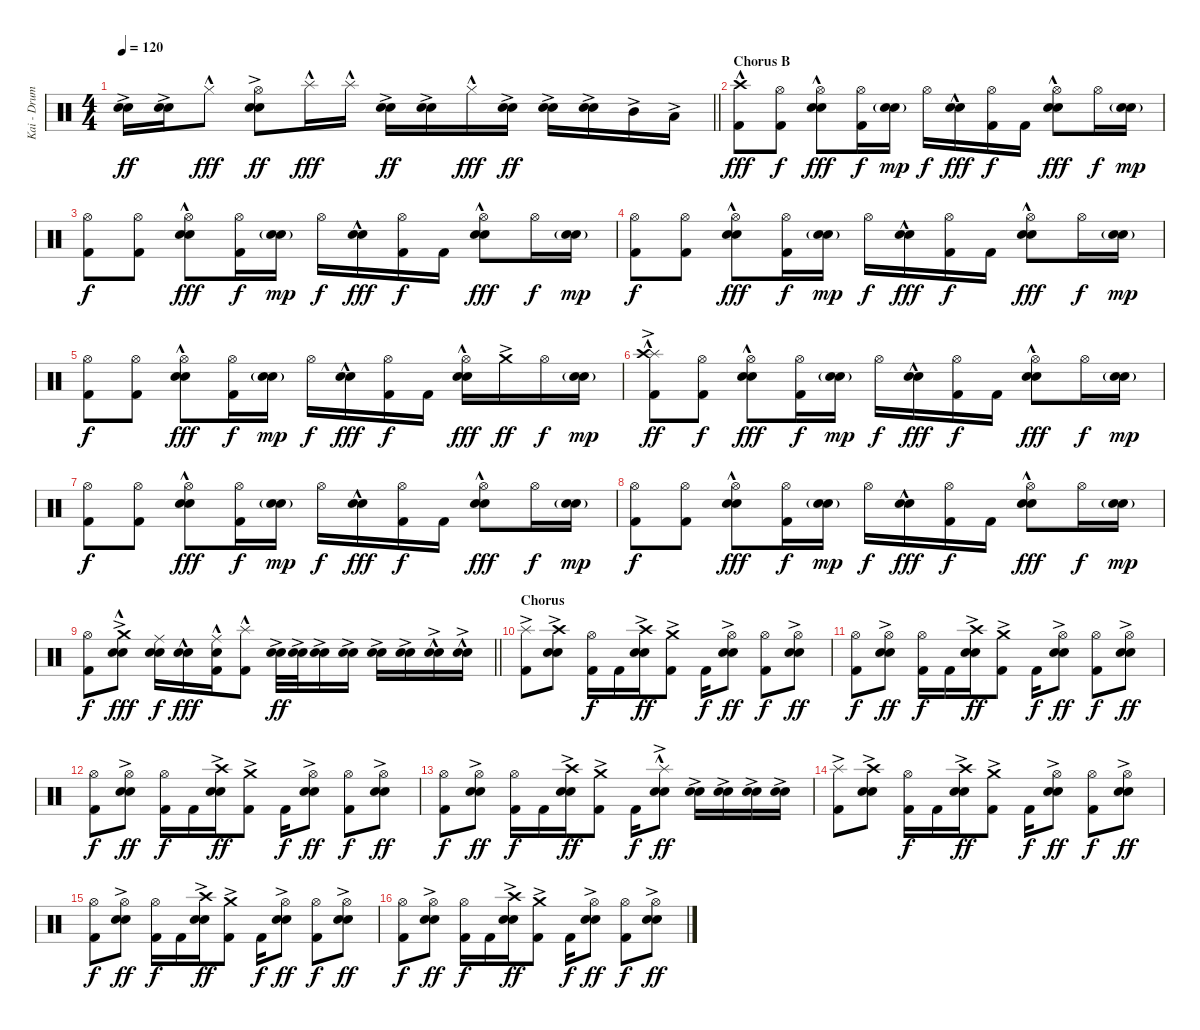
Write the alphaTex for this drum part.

\track ("Kai - Drums" "Kai - Drum") {instrument percussion}
\staff {score}
\articulation defaults
\ts (4 4)
\tempo 120
\clef neutral
\barLineRight lightlight
\ks c
("Electric Snare (hit)"{ac} "Snare (hit) 2").16{dy ff} ("Electric Snare (hit)"{ac} "Snare (hit) 2").16 "Hi-Hat (closed)"{hac}.8{dy fff} ("Hi-Hat (open)" "Electric Snare (hit)"{ac} "Snare (hit) 2").8{dy ff} "Splash (hit)"{hac}.16{dy fff} "Splash (hit)"{hac}.16 ("Electric Snare (hit)"{ac} "Snare (hit) 2").16{dy ff} ("Electric Snare (hit)"{ac} "Snare (hit) 2").16 "Hi-Hat (closed)"{hac}.16{dy fff} ("Electric Snare (hit)"{ac} "Snare (hit) 2").16{dy ff} ("Electric Snare (hit)"{ac} "Snare (hit) 2").16 ("Electric Snare (hit)"{ac} "Snare (hit) 2").16 "Mid Tom (hit)"{ac}.16 "Low Tom (hit)"{ac}.16 |
\section ("" "Chorus B")
("Crash high (hit)"{hac} "Kick (hit) 2").8{dy fff} ("Hi-Hat (open)" "Kick (hit) 2").8{dy f} ("Hi-Hat (open)" "Electric Snare (hit)"{hac} "Snare (hit) 2").8{dy fff} ("Hi-Hat (open)" "Kick (hit) 2").16{dy f} ("Electric Snare (hit)"{g} "Snare (hit) 2"{g}).16{dy mp} "Hi-Hat (open)".16{dy f} ("Electric Snare (hit)"{hac} "Snare (hit) 2").16{dy fff} ("Hi-Hat (open)" "Kick (hit) 2").16{dy f} "Kick (hit) 2".16 ("Hi-Hat (open)" "Electric Snare (hit)"{hac} "Snare (hit) 2").8{dy fff} "Hi-Hat (open)".16{dy f} ("Electric Snare (hit)"{g} "Snare (hit) 2"{g}).16{dy mp} |
("Hi-Hat (open)" "Kick (hit) 2").8{dy f} ("Hi-Hat (open)" "Kick (hit) 2").8 ("Hi-Hat (open)" "Electric Snare (hit)"{hac} "Snare (hit) 2").8{dy fff} ("Hi-Hat (open)" "Kick (hit) 2").16{dy f} ("Electric Snare (hit)"{g} "Snare (hit) 2"{g}).16{dy mp} "Hi-Hat (open)".16{dy f} ("Electric Snare (hit)"{hac} "Snare (hit) 2").16{dy fff} ("Hi-Hat (open)" "Kick (hit) 2").16{dy f} "Kick (hit) 2".16 ("Hi-Hat (open)" "Electric Snare (hit)"{hac} "Snare (hit) 2").8{dy fff} "Hi-Hat (open)".16{dy f} ("Electric Snare (hit)"{g} "Snare (hit) 2"{g}).16{dy mp} |
("Hi-Hat (open)" "Kick (hit) 2").8{dy f} ("Hi-Hat (open)" "Kick (hit) 2").8 ("Hi-Hat (open)" "Electric Snare (hit)"{hac} "Snare (hit) 2").8{dy fff} ("Hi-Hat (open)" "Kick (hit) 2").16{dy f} ("Electric Snare (hit)"{g} "Snare (hit) 2"{g}).16{dy mp} "Hi-Hat (open)".16{dy f} ("Electric Snare (hit)"{hac} "Snare (hit) 2").16{dy fff} ("Hi-Hat (open)" "Kick (hit) 2").16{dy f} "Kick (hit) 2".16 ("Hi-Hat (open)" "Electric Snare (hit)"{hac} "Snare (hit) 2").8{dy fff} "Hi-Hat (open)".16{dy f} ("Electric Snare (hit)"{g} "Snare (hit) 2"{g}).16{dy mp} |
("Hi-Hat (open)" "Kick (hit) 2").8{dy f} ("Hi-Hat (open)" "Kick (hit) 2").8 ("Hi-Hat (open)" "Electric Snare (hit)"{hac} "Snare (hit) 2").8{dy fff} ("Hi-Hat (open)" "Kick (hit) 2").16{dy f} ("Electric Snare (hit)"{g} "Snare (hit) 2"{g}).16{dy mp} "Hi-Hat (open)".16{dy f} ("Electric Snare (hit)"{hac} "Snare (hit) 2").16{dy fff} ("Hi-Hat (open)" "Kick (hit) 2").16{dy f} "Kick (hit) 2".16 ("Hi-Hat (open)" "Electric Snare (hit)"{hac} "Snare (hit) 2").16{dy fff} "Crash medium (hit)"{ac}.16{dy ff} "Hi-Hat (open)".16{dy f} ("Electric Snare (hit)"{g} "Snare (hit) 2"{g}).16{dy mp} |
("Splash (hit)"{hac} "Crash high (hit)"{ac} "Kick (hit) 2").8{dy ff} ("Hi-Hat (open)" "Kick (hit) 2").8{dy f} ("Hi-Hat (open)" "Electric Snare (hit)"{hac} "Snare (hit) 2").8{dy fff} ("Hi-Hat (open)" "Kick (hit) 2").16{dy f} ("Electric Snare (hit)"{g} "Snare (hit) 2"{g}).16{dy mp} "Hi-Hat (open)".16{dy f} ("Electric Snare (hit)"{hac} "Snare (hit) 2").16{dy fff} ("Hi-Hat (open)" "Kick (hit) 2").16{dy f} "Kick (hit) 2".16 ("Hi-Hat (open)" "Electric Snare (hit)"{hac} "Snare (hit) 2").8{dy fff} "Hi-Hat (open)".16{dy f} ("Electric Snare (hit)"{g} "Snare (hit) 2"{g}).16{dy mp} |
("Hi-Hat (open)" "Kick (hit) 2").8{dy f} ("Hi-Hat (open)" "Kick (hit) 2").8 ("Hi-Hat (open)" "Electric Snare (hit)"{hac} "Snare (hit) 2").8{dy fff} ("Hi-Hat (open)" "Kick (hit) 2").16{dy f} ("Electric Snare (hit)"{g} "Snare (hit) 2"{g}).16{dy mp} "Hi-Hat (open)".16{dy f} ("Electric Snare (hit)"{hac} "Snare (hit) 2").16{dy fff} ("Hi-Hat (open)" "Kick (hit) 2").16{dy f} "Kick (hit) 2".16 ("Hi-Hat (open)" "Electric Snare (hit)"{hac} "Snare (hit) 2").8{dy fff} "Hi-Hat (open)".16{dy f} ("Electric Snare (hit)"{g} "Snare (hit) 2"{g}).16{dy mp} |
("Hi-Hat (open)" "Kick (hit) 2").8{dy f} ("Hi-Hat (open)" "Kick (hit) 2").8 ("Hi-Hat (open)" "Electric Snare (hit)"{hac} "Snare (hit) 2").8{dy fff} ("Hi-Hat (open)" "Kick (hit) 2").16{dy f} ("Electric Snare (hit)"{g} "Snare (hit) 2"{g}).16{dy mp} "Hi-Hat (open)".16{dy f} ("Electric Snare (hit)"{hac} "Snare (hit) 2").16{dy fff} ("Hi-Hat (open)" "Kick (hit) 2").16{dy f} "Kick (hit) 2".16 ("Hi-Hat (open)" "Electric Snare (hit)"{hac} "Snare (hit) 2").8{dy fff} "Hi-Hat (open)".16{dy f} ("Electric Snare (hit)"{g} "Snare (hit) 2"{g}).16{dy mp} |
\barLineRight lightlight
("Hi-Hat (open)" "Kick (hit) 2").8{dy f} ("Crash medium (hit)"{ac} "Electric Snare (hit)"{hac} "Snare (hit) 2").8{dy fff} ("Ride (middle)" "Electric Snare (hit)" "Snare (hit) 2").16{dy f} ("Electric Snare (hit)"{hac} "Snare (hit) 2").16{dy fff} ("Ride (middle)" "Electric Snare (hit)"{hac} "Kick (hit) 2").16 ("Splash (hit)"{hac} "Kick (hit) 2").8 ("Electric Snare (hit)"{ac} "Snare (hit) 2").32{dy ff} ("Electric Snare (hit)"{ac} "Snare (hit) 2").32 ("Electric Snare (hit)"{ac} "Snare (hit) 2").16 ("Electric Snare (hit)"{ac} "Snare (hit) 2").16 ("Electric Snare (hit)"{ac} "Snare (hit) 2"{ac}).16 ("Electric Snare (hit)"{ac} "Snare (hit) 2"{ac}).16 ("Electric Snare (hit)"{hac} "Snare (hit) 2"{ac}).16 ("Electric Snare (hit)"{hac} "Snare (hit) 2"{ac}).16 |
\section ("" "Chorus")
("Splash (hit)"{ac} "Kick (hit) 2").8 ("Crash high (hit)"{ac} "Electric Snare (hit)"{ac} "Snare (hit) 2"{ac}).8 ("Hi-Hat (open)" "Kick (hit) 2").16{dy f} "Kick (hit) 2".16 ("Crash high (hit)"{ac} "Electric Snare (hit)"{ac} "Snare (hit) 2"{ac}).16{dy ff} ("Crash medium (hit)"{ac} "Kick (hit) 2").8 "Kick (hit) 2".16{dy f} ("Hi-Hat (open)" "Electric Snare (hit)"{ac} "Snare (hit) 2"{ac}).8{dy ff} ("Hi-Hat (open)" "Kick (hit) 2").8{dy f} ("Hi-Hat (open)" "Electric Snare (hit)"{ac} "Snare (hit) 2"{ac}).8{dy ff} |
("Hi-Hat (open)" "Kick (hit) 2").8{dy f} ("Hi-Hat (open)" "Electric Snare (hit)"{ac} "Snare (hit) 2"{ac}).8{dy ff} ("Hi-Hat (open)" "Kick (hit) 2").16{dy f} "Kick (hit) 2".16 ("Crash high (hit)"{ac} "Electric Snare (hit)"{ac} "Snare (hit) 2"{ac}).16{dy ff} ("Crash medium (hit)"{ac} "Kick (hit) 2").8 "Kick (hit) 2".16{dy f} ("Hi-Hat (open)" "Electric Snare (hit)"{ac} "Snare (hit) 2"{ac}).8{dy ff} ("Hi-Hat (open)" "Kick (hit) 2").8{dy f} ("Hi-Hat (open)" "Electric Snare (hit)"{ac} "Snare (hit) 2"{ac}).8{dy ff} |
("Hi-Hat (open)" "Kick (hit) 2").8{dy f} ("Hi-Hat (open)" "Electric Snare (hit)"{ac} "Snare (hit) 2"{ac}).8{dy ff} ("Hi-Hat (open)" "Kick (hit) 2").16{dy f} "Kick (hit) 2".16 ("Crash high (hit)"{ac} "Electric Snare (hit)"{ac} "Snare (hit) 2"{ac}).16{dy ff} ("Crash medium (hit)"{ac} "Kick (hit) 2").8 "Kick (hit) 2".16{dy f} ("Hi-Hat (open)" "Electric Snare (hit)"{ac} "Snare (hit) 2"{ac}).8{dy ff} ("Hi-Hat (open)" "Kick (hit) 2").8{dy f} ("Hi-Hat (open)" "Electric Snare (hit)"{ac} "Snare (hit) 2"{ac}).8{dy ff} |
("Hi-Hat (open)" "Kick (hit) 2").8{dy f} ("Hi-Hat (open)" "Electric Snare (hit)"{ac} "Snare (hit) 2"{ac}).8{dy ff} ("Hi-Hat (open)" "Kick (hit) 2").16{dy f} "Kick (hit) 2".16 ("Crash high (hit)"{ac} "Electric Snare (hit)"{ac} "Snare (hit) 2"{ac}).16{dy ff} ("Crash medium (hit)"{ac} "Kick (hit) 2").8 "Kick (hit) 2".16{dy f} ("Splash (hit)"{hac} "Electric Snare (hit)"{ac} "Snare (hit) 2"{ac}).8{dy ff} ("Electric Snare (hit)"{ac} "Snare (hit) 2"{ac}).16 ("Electric Snare (hit)"{ac} "Snare (hit) 2"{ac}).16 ("Electric Snare (hit)"{ac} "Snare (hit) 2"{ac}).16 ("Electric Snare (hit)"{ac} "Snare (hit) 2"{ac}).16 |
("Splash (hit)"{ac} "Kick (hit) 2").8 ("Crash high (hit)"{ac} "Electric Snare (hit)"{ac} "Snare (hit) 2"{ac}).8 ("Hi-Hat (open)" "Kick (hit) 2").16{dy f} "Kick (hit) 2".16 ("Crash high (hit)"{ac} "Electric Snare (hit)"{ac} "Snare (hit) 2"{ac}).16{dy ff} ("Crash medium (hit)"{ac} "Kick (hit) 2").8 "Kick (hit) 2".16{dy f} ("Hi-Hat (open)" "Electric Snare (hit)"{ac} "Snare (hit) 2"{ac}).8{dy ff} ("Hi-Hat (open)" "Kick (hit) 2").8{dy f} ("Hi-Hat (open)" "Electric Snare (hit)"{ac} "Snare (hit) 2"{ac}).8{dy ff} |
("Hi-Hat (open)" "Kick (hit) 2").8{dy f} ("Hi-Hat (open)" "Electric Snare (hit)"{ac} "Snare (hit) 2"{ac}).8{dy ff} ("Hi-Hat (open)" "Kick (hit) 2").16{dy f} "Kick (hit) 2".16 ("Crash high (hit)"{ac} "Electric Snare (hit)"{ac} "Snare (hit) 2"{ac}).16{dy ff} ("Crash medium (hit)"{ac} "Kick (hit) 2").8 "Kick (hit) 2".16{dy f} ("Hi-Hat (open)" "Electric Snare (hit)"{ac} "Snare (hit) 2"{ac}).8{dy ff} ("Hi-Hat (open)" "Kick (hit) 2").8{dy f} ("Hi-Hat (open)" "Electric Snare (hit)"{ac} "Snare (hit) 2"{ac}).8{dy ff} |
("Hi-Hat (open)" "Kick (hit) 2").8{dy f} ("Hi-Hat (open)" "Electric Snare (hit)"{ac} "Snare (hit) 2"{ac}).8{dy ff} ("Hi-Hat (open)" "Kick (hit) 2").16{dy f} "Kick (hit) 2".16 ("Crash high (hit)"{ac} "Electric Snare (hit)"{ac} "Snare (hit) 2"{ac}).16{dy ff} ("Crash medium (hit)"{ac} "Kick (hit) 2").8 "Kick (hit) 2".16{dy f} ("Hi-Hat (open)" "Electric Snare (hit)"{ac} "Snare (hit) 2"{ac}).8{dy ff} ("Hi-Hat (open)" "Kick (hit) 2").8{dy f} ("Hi-Hat (open)" "Electric Snare (hit)"{ac} "Snare (hit) 2"{ac}).8{dy ff}
